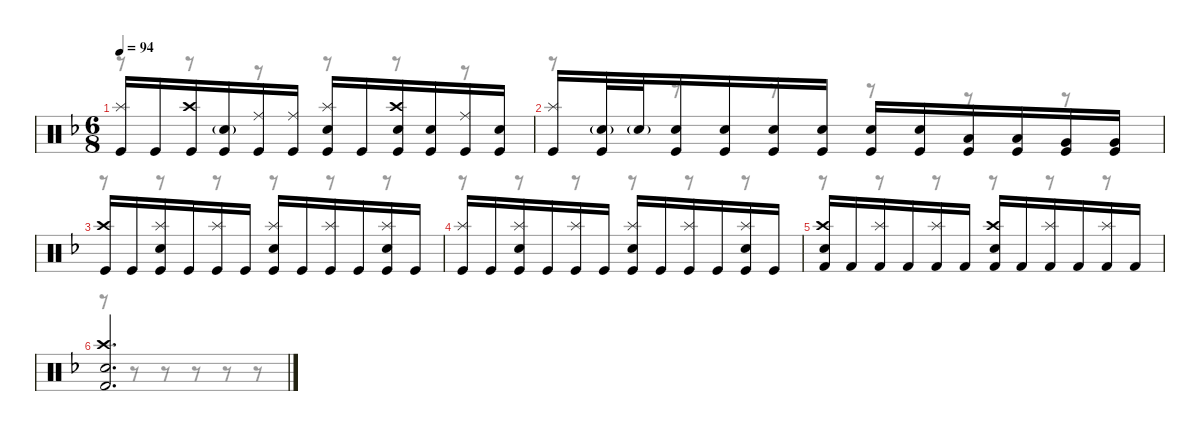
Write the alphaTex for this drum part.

\defaultSystemsLayout 4
\hideDynamics
\bracketExtendMode nobrackets
\singleTrackTrackNamePolicy hidden
\multiTrackTrackNamePolicy hidden
\otherSystemsTrackNameOrientation horizontal
\track ("M. Lopez" "drm.") {instrument percussion}
\staff {score}
\articulation defaults
\voice
\ts (6 8)
\tempo 94
\clef neutral
\ks dminor
("Splash (hit)"{acc forcenatural} "Kick (hit)"{acc forcenatural}).16{dy f beam Up} "Kick (hit)"{acc forcenatural}.16{beam Up} ("Crash high (hit)"{acc forcenatural} "Kick (hit)"{acc forcenatural}).16{beam Up} ("Snare (hit) 2"{g acc forcenatural} "Kick (hit)"{acc forcenatural}).16{beam Up} ("Ride (middle)"{acc forcenatural} "Kick (hit)"{acc forcenatural}).16{dy ff beam Up} ("Ride (middle)"{acc forcenatural} "Kick (hit)"{acc forcenatural}).16{dy f beam Up} ("Splash (hit)"{acc forcenatural} "Snare (hit) 2"{acc forcenatural} "Kick (hit)"{acc forcenatural}).16{beam Up} "Kick (hit)"{acc forcenatural}.16{beam Up} ("Crash high (hit)"{acc forcenatural} "Snare (hit) 2"{acc forcenatural} "Kick (hit)"{acc forcenatural}).16{beam Up} ("Snare (hit) 2"{acc forcenatural} "Kick (hit)"{acc forcenatural}).16{beam Up} ("Ride (middle)"{acc forcenatural} "Kick (hit)"{acc forcenatural}).16{dy ff beam Up} ("Snare (hit) 2"{acc forcenatural} "Kick (hit)"{acc forcenatural}).16{beam Up} |
("Splash (hit)"{acc forcenatural} "Kick (hit)"{acc forcenatural}).16{dy f beam Up} ("Snare (hit) 2"{g acc forcenatural} "Kick (hit)"{acc forcenatural}).32{beam Up} "Snare (hit) 2"{g acc forcenatural}.32{dy ff beam Up} ("Snare (hit) 2"{acc forcenatural} "Kick (hit)"{acc forcenatural}).16{dy f beam Up} ("Snare (hit) 2"{acc forcenatural} "Kick (hit)"{acc forcenatural}).16{beam Up} ("Snare (hit) 2"{acc forcenatural} "Kick (hit)"{acc forcenatural}).16{beam Up} ("Snare (hit) 2"{acc forcenatural} "Kick (hit)"{acc forcenatural}).16{beam Up} ("Snare (hit) 2"{acc forcenatural} "Kick (hit)"{acc forcenatural}).16{beam Up} ("Snare (hit) 2"{acc forcenatural} "Kick (hit)"{acc forcenatural}).16{beam Up} ("Low Tom (hit)"{acc forcenatural} "Kick (hit)"{acc forcenatural}).16{beam Up} ("Low Tom (hit)"{acc forcenatural} "Kick (hit)"{acc forcenatural}).16{beam Up} ("Very Low Tom (hit)"{acc forcenatural} "Kick (hit)"{acc forcenatural}).16{beam Up} ("Very Low Tom (hit)"{acc forcenatural} "Kick (hit)"{acc forcenatural}).16{beam Up} |
("Crash high (hit)"{acc forcenatural} "Kick (hit)"{acc forcenatural}).16{beam Up} "Kick (hit)"{acc forcenatural}.16{beam Up} ("Splash (hit)"{acc forcenatural} "Snare (hit) 2"{acc forcenatural} "Kick (hit)"{acc forcenatural}).16{dy mf beam Up} "Kick (hit)"{acc forcenatural}.16{dy f beam Up} ("Splash (hit)"{acc forcenatural} "Kick (hit)"{acc forcenatural}).16{dy mf beam Up} "Kick (hit)"{acc forcenatural}.16{dy f beam Up} ("Splash (hit)"{acc forcenatural} "Snare (hit) 2"{acc forcenatural} "Kick (hit)"{acc forcenatural}).16{dy mf beam Up} "Kick (hit)"{acc forcenatural}.16{dy f beam Up} ("Splash (hit)"{acc forcenatural} "Kick (hit)"{acc forcenatural}).16{dy mf beam Up} "Kick (hit)"{acc forcenatural}.16{dy f beam Up} ("Splash (hit)"{acc forcenatural} "Snare (hit) 2"{acc forcenatural} "Kick (hit)"{acc forcenatural}).16{dy mf beam Up} "Kick (hit)"{acc forcenatural}.16{dy f beam Up} |
("Splash (hit)"{acc forcenatural} "Kick (hit)"{acc forcenatural}).16{dy mf beam Up} "Kick (hit)"{acc forcenatural}.16{dy f beam Up} ("Splash (hit)"{acc forcenatural} "Snare (hit) 2"{acc forcenatural} "Kick (hit)"{acc forcenatural}).16{dy mf beam Up} "Kick (hit)"{acc forcenatural}.16{dy f beam Up} ("Splash (hit)"{acc forcenatural} "Kick (hit)"{acc forcenatural}).16{dy mf beam Up} "Kick (hit)"{acc forcenatural}.16{dy f beam Up} ("Splash (hit)"{acc forcenatural} "Snare (hit) 2"{acc forcenatural} "Kick (hit)"{acc forcenatural}).16{dy mf beam Up} "Kick (hit)"{acc forcenatural}.16{dy f beam Up} ("Splash (hit)"{acc forcenatural} "Kick (hit)"{acc forcenatural}).16{dy mf beam Up} "Kick (hit)"{acc forcenatural}.16{dy f beam Up} ("Splash (hit)"{acc forcenatural} "Snare (hit) 2"{acc forcenatural} "Kick (hit)"{acc forcenatural}).16{dy mf beam Up} "Kick (hit)"{acc forcenatural}.16{dy f beam Up} |
("Crash high (hit)"{acc forcenatural} "Snare (hit) 2"{acc forcenatural} "Kick (hit) 2"{acc forcenatural}).16{beam Up} "Kick (hit) 2"{acc forcenatural}.16{beam Up} ("Splash (hit)"{acc forcenatural} "Kick (hit) 2"{acc forcenatural}).16{dy mp beam Up} "Kick (hit) 2"{acc forcenatural}.16{dy f beam Up} ("Splash (hit)"{acc forcenatural} "Kick (hit) 2"{acc forcenatural}).16{dy mp beam Up} "Kick (hit) 2"{acc forcenatural}.16{dy f beam Up} ("Crash high (hit)"{acc forcenatural} "Snare (hit) 2"{acc forcenatural} "Kick (hit) 2"{acc forcenatural}).16{beam Up} "Kick (hit) 2"{acc forcenatural}.16{beam Up} ("Splash (hit)"{acc forcenatural} "Kick (hit) 2"{acc forcenatural}).16{dy mp beam Up} "Kick (hit) 2"{acc forcenatural}.16{dy f beam Up} ("Splash (hit)"{acc forcenatural} "Kick (hit) 2"{acc forcenatural}).16{dy mp beam Up} "Kick (hit) 2"{acc forcenatural}.16{dy f beam Up} |
("Crash high (hit)"{acc forcenatural} "Snare (hit) 2"{acc forcenatural} "Kick (hit) 2"{acc forcenatural}).2{d beam Up}
\voice
\clef neutral
\ottava regular
\simile none
\ks dminor
r.8{dy mf beam Down} r.8{beam Down} r.8{beam Down} r.8{beam Down} r.8{beam Down} r.8{beam Down} |
r.8{beam Down} r.8{beam Down} r.8{beam Down} r.8{beam Down} r.8{beam Down} r.8{beam Down} |
r.8{beam Down} r.8{beam Down} r.8{beam Down} r.8{beam Down} r.8{beam Down} r.8{beam Down} |
r.8{beam Down} r.8{beam Down} r.8{beam Down} r.8{beam Down} r.8{beam Down} r.8{beam Down} |
r.8{beam Down} r.8{beam Down} r.8{beam Down} r.8{beam Down} r.8{beam Down} r.8{beam Down} |
r.8{beam Down} r.8{beam Down} r.8{beam Down} r.8{beam Down} r.8{beam Down} r.8{beam Down}
